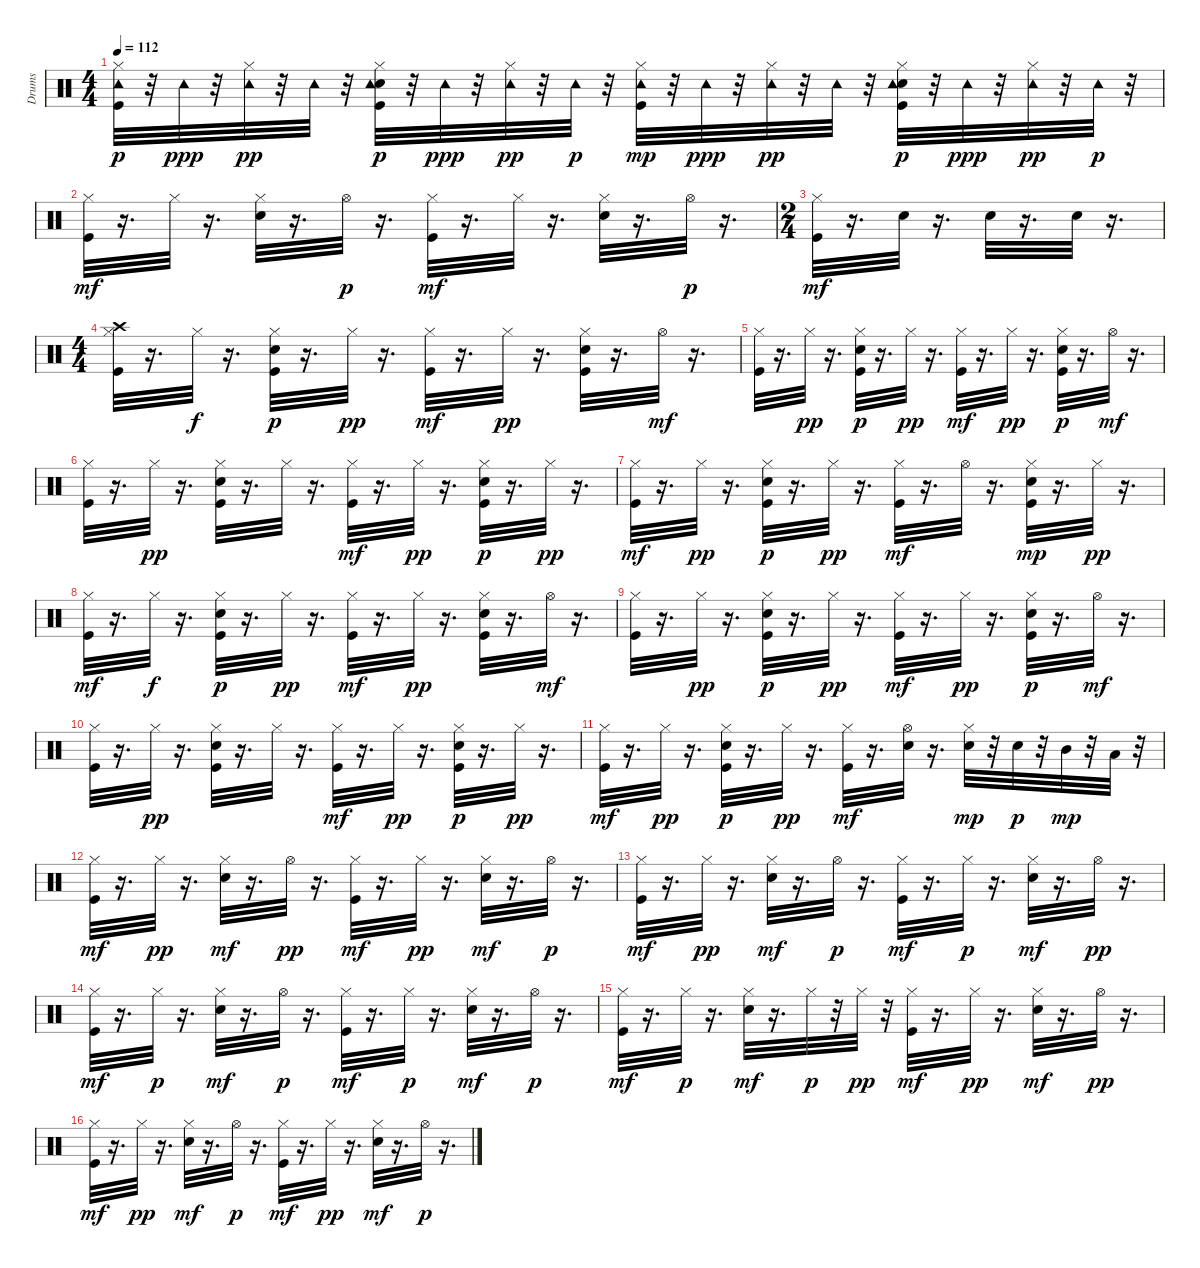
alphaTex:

\track ("Drums" "Drums") {instrument percussion}
\staff {score}
\articulation defaults
\ts (4 4)
\tempo 112
\clef neutral
\ks c
("Kick (hit)" "Hi-Hat (closed)" "Tambourine (hit)").32{dy p} r.32 "Tambourine (hit)".32{dy ppp} r.32 ("Hi-Hat (closed)" "Tambourine (hit)").32{dy pp} r.32 "Tambourine (hit)".32 r.32 ("Kick (hit)" "Electric Snare (hit)" "Hi-Hat (closed)" "Tambourine (hit)").32{dy p} r.32 "Tambourine (hit)".32{dy ppp} r.32 ("Hi-Hat (closed)" "Tambourine (hit)").32{dy pp} r.32 "Tambourine (hit)".32{dy p} r.32 ("Kick (hit)" "Hi-Hat (closed)" "Tambourine (hit)").32{dy mp} r.32 "Tambourine (hit)".32{dy ppp} r.32 ("Hi-Hat (closed)" "Tambourine (hit)").32{dy pp} r.32 "Tambourine (hit)".32 r.32 ("Kick (hit)" "Electric Snare (hit)" "Hi-Hat (closed)" "Tambourine (hit)").32{dy p} r.32 "Tambourine (hit)".32{dy ppp} r.32 ("Tambourine (hit)" "Hi-Hat (closed)").32{dy pp} r.32 "Tambourine (hit)".32{dy p} r.32 |
("Hi-Hat (closed)" "Kick (hit)").32{dy mf} r.16{d} "Hi-Hat (closed)".32 r.16{d} ("Hi-Hat (closed)" "Electric Snare (hit)").32 r.16{d} "Hi-Hat (open)".32{dy p} r.16{d} ("Hi-Hat (closed)" "Kick (hit)").32{dy mf} r.16{d} "Hi-Hat (closed)".32 r.16{d} ("Hi-Hat (closed)" "Electric Snare (hit)").32 r.16{d} "Hi-Hat (open)".32{dy p} r.16{d} |
\ts (2 4)
("Hi-Hat (closed)" "Kick (hit)").32{dy mf} r.16{d} "Electric Snare (hit)".32 r.16{d} "Electric Snare (hit)".32 r.16{d} "Electric Snare (hit)".32 r.16{d} |
\ts (4 4)
("Hi-Hat (closed)" "Crash high (hit)" "Kick (hit)").32 r.16{d} "Hi-Hat (closed)".32{dy f} r.16{d} ("Hi-Hat (closed)" "Electric Snare (hit)" "Kick (hit)").32{dy p} r.16{d} "Hi-Hat (closed)".32{dy pp} r.16{d} ("Hi-Hat (closed)" "Kick (hit)").32{dy mf} r.16{d} "Hi-Hat (closed)".32{dy pp} r.16{d} ("Hi-Hat (closed)" "Electric Snare (hit)" "Kick (hit)").32 r.16{d} "Hi-Hat (open)".32{dy mf} r.16{d} |
("Hi-Hat (closed)" "Kick (hit)").32 r.16{d} "Hi-Hat (closed)".32{dy pp} r.16{d} ("Hi-Hat (closed)" "Electric Snare (hit)" "Kick (hit)").32{dy p} r.16{d} "Hi-Hat (closed)".32{dy pp} r.16{d} ("Hi-Hat (closed)" "Kick (hit)").32{dy mf} r.16{d} "Hi-Hat (closed)".32{dy pp} r.16{d} ("Hi-Hat (closed)" "Electric Snare (hit)" "Kick (hit)").32{dy p} r.16{d} "Hi-Hat (open)".32{dy mf} r.16{d} |
("Hi-Hat (closed)" "Kick (hit)").32 r.16{d} "Hi-Hat (closed)".32{dy pp} r.16{d} ("Hi-Hat (closed)" "Electric Snare (hit)" "Kick (hit)").32 r.16{d} "Hi-Hat (closed)".32 r.16{d} ("Hi-Hat (closed)" "Kick (hit)").32{dy mf} r.16{d} "Hi-Hat (closed)".32{dy pp} r.16{d} ("Hi-Hat (closed)" "Electric Snare (hit)" "Kick (hit)").32{dy p} r.16{d} "Hi-Hat (closed)".32{dy pp} r.16{d} |
("Kick (hit)" "Hi-Hat (closed)").32{dy mf} r.16{d} "Hi-Hat (closed)".32{dy pp} r.16{d} ("Kick (hit)" "Electric Snare (hit)" "Hi-Hat (closed)").32{dy p} r.16{d} "Hi-Hat (closed)".32{dy pp} r.16{d} ("Kick (hit)" "Hi-Hat (closed)").32{dy mf} r.16{d} "Hi-Hat (open)".32 r.16{d} ("Electric Snare (hit)" "Kick (hit)" "Hi-Hat (closed)").32{dy mp} r.16{d} "Hi-Hat (closed)".32{dy pp} r.16{d} |
("Hi-Hat (closed)" "Kick (hit)").32{dy mf} r.16{d} "Hi-Hat (closed)".32{dy f} r.16{d} ("Hi-Hat (closed)" "Electric Snare (hit)" "Kick (hit)").32{dy p} r.16{d} "Hi-Hat (closed)".32{dy pp} r.16{d} ("Hi-Hat (closed)" "Kick (hit)").32{dy mf} r.16{d} "Hi-Hat (closed)".32{dy pp} r.16{d} ("Hi-Hat (closed)" "Electric Snare (hit)" "Kick (hit)").32 r.16{d} "Hi-Hat (open)".32{dy mf} r.16{d} |
("Hi-Hat (closed)" "Kick (hit)").32 r.16{d} "Hi-Hat (closed)".32{dy pp} r.16{d} ("Hi-Hat (closed)" "Electric Snare (hit)" "Kick (hit)").32{dy p} r.16{d} "Hi-Hat (closed)".32{dy pp} r.16{d} ("Hi-Hat (closed)" "Kick (hit)").32{dy mf} r.16{d} "Hi-Hat (closed)".32{dy pp} r.16{d} ("Hi-Hat (closed)" "Electric Snare (hit)" "Kick (hit)").32{dy p} r.16{d} "Hi-Hat (open)".32{dy mf} r.16{d} |
("Hi-Hat (closed)" "Kick (hit)").32 r.16{d} "Hi-Hat (closed)".32{dy pp} r.16{d} ("Hi-Hat (closed)" "Electric Snare (hit)" "Kick (hit)").32 r.16{d} "Hi-Hat (closed)".32 r.16{d} ("Hi-Hat (closed)" "Kick (hit)").32{dy mf} r.16{d} "Hi-Hat (closed)".32{dy pp} r.16{d} ("Hi-Hat (closed)" "Electric Snare (hit)" "Kick (hit)").32{dy p} r.16{d} "Hi-Hat (closed)".32{dy pp} r.16{d} |
("Kick (hit)" "Hi-Hat (closed)").32{dy mf} r.16{d} "Hi-Hat (closed)".32{dy pp} r.16{d} ("Kick (hit)" "Electric Snare (hit)" "Hi-Hat (closed)").32{dy p} r.16{d} "Hi-Hat (closed)".32{dy pp} r.16{d} ("Kick (hit)" "Hi-Hat (closed)").32{dy mf} r.16{d} ("Electric Snare (hit)" "Hi-Hat (open)").32 r.16{d} ("Electric Snare (hit)" "Hi-Hat (closed)").32{dy mp} r.32 "Electric Snare (hit)".32{dy p} r.32 "Mid Tom (hit)".32{dy mp} r.32 "Low Tom (hit)".32 r.32 |
("Hi-Hat (closed)" "Kick (hit)").32{dy mf} r.16{d} "Hi-Hat (closed)".32{dy pp} r.16{d} ("Hi-Hat (closed)" "Electric Snare (hit)").32{dy mf} r.16{d} "Hi-Hat (open)".32{dy pp} r.16{d} ("Hi-Hat (closed)" "Kick (hit)").32{dy mf} r.16{d} "Hi-Hat (closed)".32{dy pp} r.16{d} ("Hi-Hat (closed)" "Electric Snare (hit)").32{dy mf} r.16{d} "Hi-Hat (open)".32{dy p} r.16{d} |
("Hi-Hat (closed)" "Kick (hit)").32{dy mf} r.16{d} "Hi-Hat (closed)".32{dy pp} r.16{d} ("Hi-Hat (closed)" "Electric Snare (hit)").32{dy mf} r.16{d} "Hi-Hat (open)".32{dy p} r.16{d} ("Hi-Hat (closed)" "Kick (hit)").32{dy mf} r.16{d} "Hi-Hat (closed)".32{dy p} r.16{d} ("Hi-Hat (closed)" "Electric Snare (hit)").32{dy mf} r.16{d} "Hi-Hat (open)".32{dy pp} r.16{d} |
("Hi-Hat (closed)" "Kick (hit)").32{dy mf} r.16{d} "Hi-Hat (closed)".32{dy p} r.16{d} ("Hi-Hat (closed)" "Electric Snare (hit)").32{dy mf} r.16{d} "Hi-Hat (open)".32{dy p} r.16{d} ("Hi-Hat (closed)" "Kick (hit)").32{dy mf} r.16{d} "Hi-Hat (closed)".32{dy p} r.16{d} ("Hi-Hat (closed)" "Electric Snare (hit)").32{dy mf} r.16{d} "Hi-Hat (open)".32{dy p} r.16{d} |
("Hi-Hat (closed)" "Kick (hit)").32{dy mf} r.16{d} "Hi-Hat (closed)".32{dy p} r.16{d} ("Hi-Hat (closed)" "Electric Snare (hit)").32{dy mf} r.16{d} "Hi-Hat (closed)".32{dy p} r.32 "Hi-Hat (closed)".32{dy pp} r.32 ("Hi-Hat (closed)" "Kick (hit)").32{dy mf} r.16{d} "Hi-Hat (closed)".32{dy pp} r.16{d} ("Hi-Hat (closed)" "Electric Snare (hit)").32{dy mf} r.16{d} "Hi-Hat (open)".32{dy pp} r.16{d} |
("Hi-Hat (closed)" "Kick (hit)").32{dy mf} r.16{d} "Hi-Hat (closed)".32{dy pp} r.16{d} ("Hi-Hat (closed)" "Electric Snare (hit)").32{dy mf} r.16{d} "Hi-Hat (open)".32{dy p} r.16{d} ("Hi-Hat (closed)" "Kick (hit)").32{dy mf} r.16{d} "Hi-Hat (closed)".32{dy pp} r.16{d} ("Hi-Hat (closed)" "Electric Snare (hit)").32{dy mf} r.16{d} "Hi-Hat (open)".32{dy p} r.16{d}
